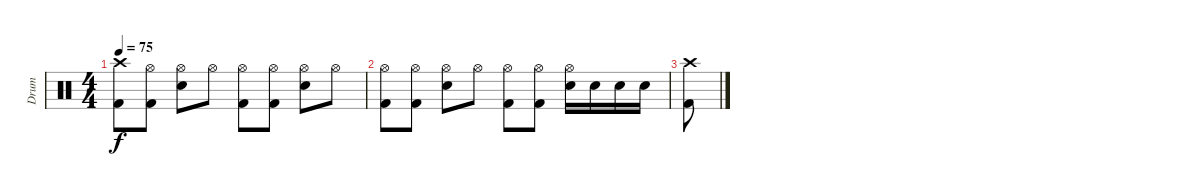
\track ("Drum" "Drum") {instrument percussion}
\staff {score}
\articulation defaults
\ts (4 4)
\tempo 75
\clef neutral
\ks c
("Crash high (hit)" "Kick (hit) 2").8{dy f} ("Hi-Hat (open)" "Kick (hit) 2").8 ("Hi-Hat (open)" "Electric Snare (hit)").8 "Hi-Hat (open)".8 ("Hi-Hat (open)" "Kick (hit) 2").8 ("Hi-Hat (open)" "Kick (hit) 2").8 ("Hi-Hat (open)" "Electric Snare (hit)").8 "Hi-Hat (open)".8 |
("Hi-Hat (open)" "Kick (hit) 2").8 ("Hi-Hat (open)" "Kick (hit) 2").8 ("Hi-Hat (open)" "Electric Snare (hit)").8 "Hi-Hat (open)".8 ("Hi-Hat (open)" "Kick (hit) 2").8 ("Hi-Hat (open)" "Kick (hit) 2").8 ("Hi-Hat (open)" "Electric Snare (hit)").16 "Electric Snare (hit)".16 "Electric Snare (hit)".16 "Electric Snare (hit)".16 |
("Crash high (hit)" "Kick (hit) 2").8
